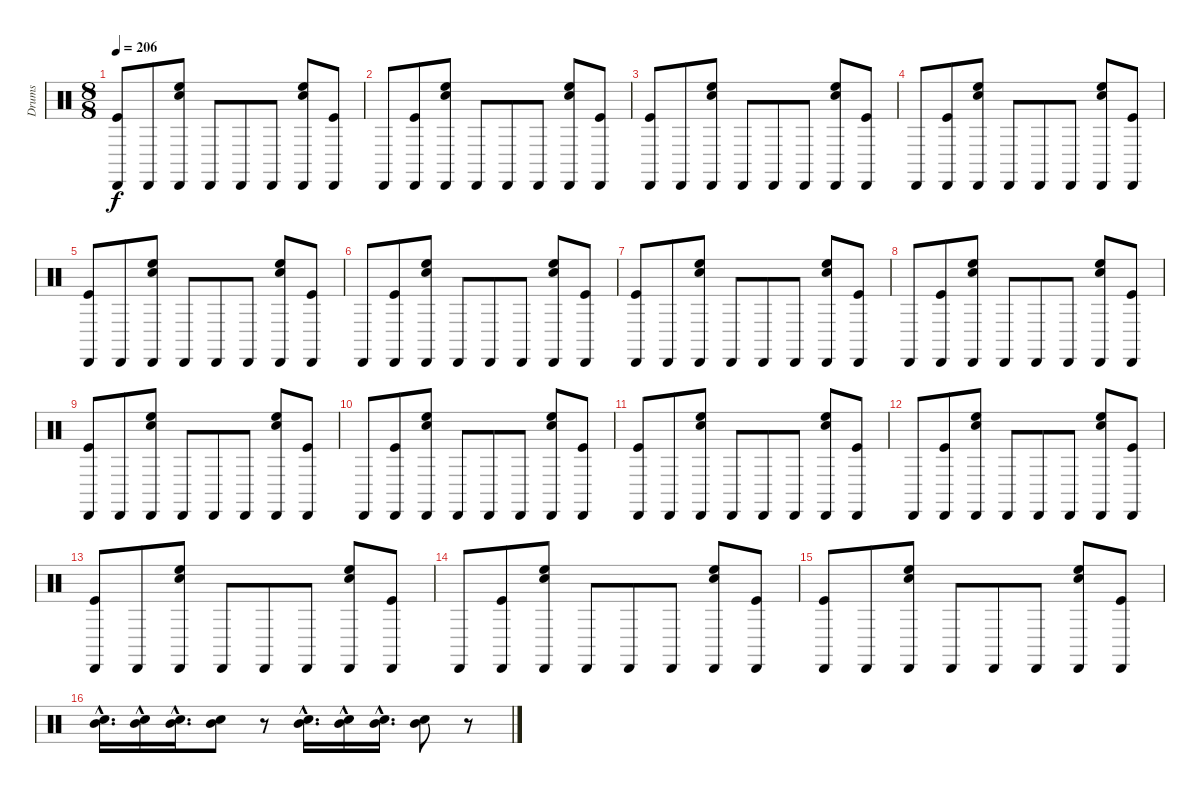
\track ("Drums" "Drums") {instrument percussion}
\staff {score}
\articulation defaults
\ts (8 8)
\tempo 206
\clef neutral
\ks c
("Kick (hit)" "Cabasa (hit)").8{dy f} "Cabasa (hit)".8 ("High Floor Tom (hit)" "Electric Snare (hit)" "Cabasa (hit)").8 "Cabasa (hit)".8 "Cabasa (hit)".8 "Cabasa (hit)".8 ("Electric Snare (hit)" "High Floor Tom (hit)" "Cabasa (hit)").8 ("Kick (hit)" "Cabasa (hit)").8 |
"Cabasa (hit)".8 ("Kick (hit)" "Cabasa (hit)").8 ("High Floor Tom (hit)" "Electric Snare (hit)" "Cabasa (hit)").8 "Cabasa (hit)".8 "Cabasa (hit)".8 "Cabasa (hit)".8 ("High Floor Tom (hit)" "Electric Snare (hit)" "Cabasa (hit)").8 ("Kick (hit)" "Cabasa (hit)").8 |
("Kick (hit)" "Cabasa (hit)").8 "Cabasa (hit)".8 ("High Floor Tom (hit)" "Electric Snare (hit)" "Cabasa (hit)").8 "Cabasa (hit)".8 "Cabasa (hit)".8 "Cabasa (hit)".8 ("Electric Snare (hit)" "High Floor Tom (hit)" "Cabasa (hit)").8 ("Kick (hit)" "Cabasa (hit)").8 |
"Cabasa (hit)".8 ("Kick (hit)" "Cabasa (hit)").8 ("High Floor Tom (hit)" "Electric Snare (hit)" "Cabasa (hit)").8 "Cabasa (hit)".8 "Cabasa (hit)".8 "Cabasa (hit)".8 ("High Floor Tom (hit)" "Electric Snare (hit)" "Cabasa (hit)").8 ("Kick (hit)" "Cabasa (hit)").8 |
("Kick (hit)" "Cabasa (hit)").8 "Cabasa (hit)".8 ("High Floor Tom (hit)" "Electric Snare (hit)" "Cabasa (hit)").8 "Cabasa (hit)".8 "Cabasa (hit)".8 "Cabasa (hit)".8 ("Electric Snare (hit)" "High Floor Tom (hit)" "Cabasa (hit)").8 ("Kick (hit)" "Cabasa (hit)").8 |
"Cabasa (hit)".8 ("Kick (hit)" "Cabasa (hit)").8 ("High Floor Tom (hit)" "Electric Snare (hit)" "Cabasa (hit)").8 "Cabasa (hit)".8 "Cabasa (hit)".8 "Cabasa (hit)".8 ("High Floor Tom (hit)" "Electric Snare (hit)" "Cabasa (hit)").8 ("Kick (hit)" "Cabasa (hit)").8 |
("Kick (hit)" "Cabasa (hit)").8 "Cabasa (hit)".8 ("High Floor Tom (hit)" "Electric Snare (hit)" "Cabasa (hit)").8 "Cabasa (hit)".8 "Cabasa (hit)".8 "Cabasa (hit)".8 ("Electric Snare (hit)" "High Floor Tom (hit)" "Cabasa (hit)").8 ("Kick (hit)" "Cabasa (hit)").8 |
"Cabasa (hit)".8 ("Kick (hit)" "Cabasa (hit)").8 ("High Floor Tom (hit)" "Electric Snare (hit)" "Cabasa (hit)").8 "Cabasa (hit)".8 "Cabasa (hit)".8 "Cabasa (hit)".8 ("High Floor Tom (hit)" "Electric Snare (hit)" "Cabasa (hit)").8 ("Kick (hit)" "Cabasa (hit)").8 |
("Kick (hit)" "Cabasa (hit)").8 "Cabasa (hit)".8 ("High Floor Tom (hit)" "Electric Snare (hit)" "Cabasa (hit)").8 "Cabasa (hit)".8 "Cabasa (hit)".8 "Cabasa (hit)".8 ("Electric Snare (hit)" "High Floor Tom (hit)" "Cabasa (hit)").8 ("Kick (hit)" "Cabasa (hit)").8 |
"Cabasa (hit)".8 ("Kick (hit)" "Cabasa (hit)").8 ("High Floor Tom (hit)" "Electric Snare (hit)" "Cabasa (hit)").8 "Cabasa (hit)".8 "Cabasa (hit)".8 "Cabasa (hit)".8 ("High Floor Tom (hit)" "Electric Snare (hit)" "Cabasa (hit)").8 ("Kick (hit)" "Cabasa (hit)").8 |
("Kick (hit)" "Cabasa (hit)").8 "Cabasa (hit)".8 ("High Floor Tom (hit)" "Electric Snare (hit)" "Cabasa (hit)").8 "Cabasa (hit)".8 "Cabasa (hit)".8 "Cabasa (hit)".8 ("Electric Snare (hit)" "High Floor Tom (hit)" "Cabasa (hit)").8 ("Kick (hit)" "Cabasa (hit)").8 |
"Cabasa (hit)".8 ("Kick (hit)" "Cabasa (hit)").8 ("High Floor Tom (hit)" "Electric Snare (hit)" "Cabasa (hit)").8 "Cabasa (hit)".8 "Cabasa (hit)".8 "Cabasa (hit)".8 ("High Floor Tom (hit)" "Electric Snare (hit)" "Cabasa (hit)").8 ("Kick (hit)" "Cabasa (hit)").8 |
("Kick (hit)" "Cabasa (hit)").8 "Cabasa (hit)".8 ("High Floor Tom (hit)" "Electric Snare (hit)" "Cabasa (hit)").8 "Cabasa (hit)".8 "Cabasa (hit)".8 "Cabasa (hit)".8 ("Electric Snare (hit)" "High Floor Tom (hit)" "Cabasa (hit)").8 ("Kick (hit)" "Cabasa (hit)").8 |
"Cabasa (hit)".8 ("Kick (hit)" "Cabasa (hit)").8 ("High Floor Tom (hit)" "Electric Snare (hit)" "Cabasa (hit)").8 "Cabasa (hit)".8 "Cabasa (hit)".8 "Cabasa (hit)".8 ("High Floor Tom (hit)" "Electric Snare (hit)" "Cabasa (hit)").8 ("Kick (hit)" "Cabasa (hit)").8 |
("Kick (hit)" "Cabasa (hit)").8 "Cabasa (hit)".8 ("High Floor Tom (hit)" "Electric Snare (hit)" "Cabasa (hit)").8 "Cabasa (hit)".8 "Cabasa (hit)".8 "Cabasa (hit)".8 ("Electric Snare (hit)" "High Floor Tom (hit)" "Cabasa (hit)").8 ("Kick (hit)" "Cabasa (hit)").8 |
("Mid Tom (hit)"{hac} "Electric Snare (hit)"{hac}).16{d} ("Mid Tom (hit)"{hac} "Electric Snare (hit)"{hac}).16 ("Mid Tom (hit)"{hac} "Electric Snare (hit)"{hac}).16{d} ("Electric Snare (hit)" "Mid Tom (hit)").8 r.8 ("Mid Tom (hit)"{hac} "Electric Snare (hit)"{hac}).16{d} ("Mid Tom (hit)"{hac} "Electric Snare (hit)"{hac}).16 ("Mid Tom (hit)"{hac} "Electric Snare (hit)"{hac}).16{d} ("Electric Snare (hit)" "Mid Tom (hit)").8 r.8
